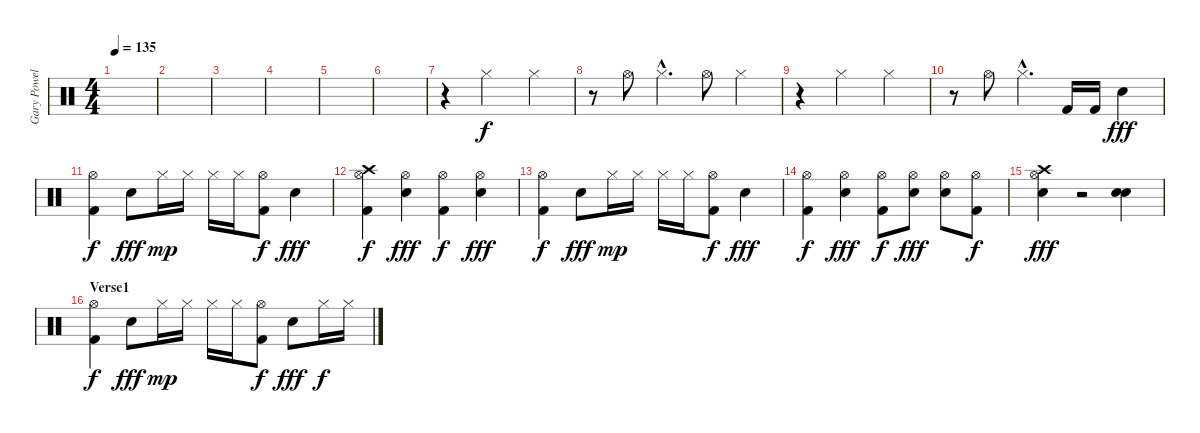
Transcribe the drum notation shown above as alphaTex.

\track ("Gary Powell" "Gary Powel") {instrument percussion}
\staff {score}
\articulation defaults
\ts (4 4)
\tempo 135
\clef neutral
\ks c
|
|
|
|
|
|
r.4 "Hi-Hat (closed)".2 "Hi-Hat (closed)".4 |
r.8 "Hi-Hat (open)".8 "Hi-Hat (closed)"{hac}.4{d} "Hi-Hat (open)".8 "Hi-Hat (closed)".4 |
r.4 "Hi-Hat (closed)".2 "Hi-Hat (closed)".4 |
r.8 "Hi-Hat (open)".8 "Hi-Hat (closed)"{hac}.4{d} "Kick (hit) 2".16 "Kick (hit) 2".16 "Electric Snare (hit)".4{dy fff} |
("Hi-Hat (open)" "Kick (hit) 2").4{dy f} "Electric Snare (hit)".8{dy fff} "Hi-Hat (closed)".16{dy mp} "Hi-Hat (closed)".16 "Hi-Hat (closed)".16 "Hi-Hat (closed)".16 ("Hi-Hat (open)" "Kick (hit) 2").8{dy f} "Electric Snare (hit)".4{dy fff} |
("Hi-Hat (open)" "Kick (hit) 2" "Crash high (hit)").4{dy f} ("Hi-Hat (open)" "Electric Snare (hit)").4{dy fff} ("Hi-Hat (open)" "Kick (hit) 2").4{dy f} ("Hi-Hat (open)" "Electric Snare (hit)").4{dy fff} |
("Hi-Hat (open)" "Kick (hit) 2").4{dy f} "Electric Snare (hit)".8{dy fff} "Hi-Hat (closed)".16{dy mp} "Hi-Hat (closed)".16 "Hi-Hat (closed)".16 "Hi-Hat (closed)".16 ("Hi-Hat (open)" "Kick (hit) 2").8{dy f} "Electric Snare (hit)".4{dy fff} |
("Hi-Hat (open)" "Kick (hit) 2").4{dy f} ("Hi-Hat (open)" "Electric Snare (hit)").4{dy fff} ("Hi-Hat (open)" "Kick (hit) 2").8{dy f} ("Hi-Hat (open)" "Electric Snare (hit)").8{dy fff} ("Hi-Hat (open)" "Electric Snare (hit)").8 ("Hi-Hat (open)" "Kick (hit) 2").8{dy f} |
("Hi-Hat (open)" "Electric Snare (hit)" "Crash high (hit)").4{dy fff} r.2 ("Electric Snare (hit)" "Electric Snare (hit)").4 |
\section ("" "Verse1")
("Hi-Hat (open)" "Kick (hit) 2").4{dy f} "Electric Snare (hit)".8{dy fff} "Hi-Hat (closed)".16{dy mp} "Hi-Hat (closed)".16 "Hi-Hat (closed)".16 "Hi-Hat (closed)".16 ("Hi-Hat (open)" "Kick (hit) 2").8{dy f} "Electric Snare (hit)".8{dy fff} "Hi-Hat (closed)".16{dy f} "Hi-Hat (closed)".16
